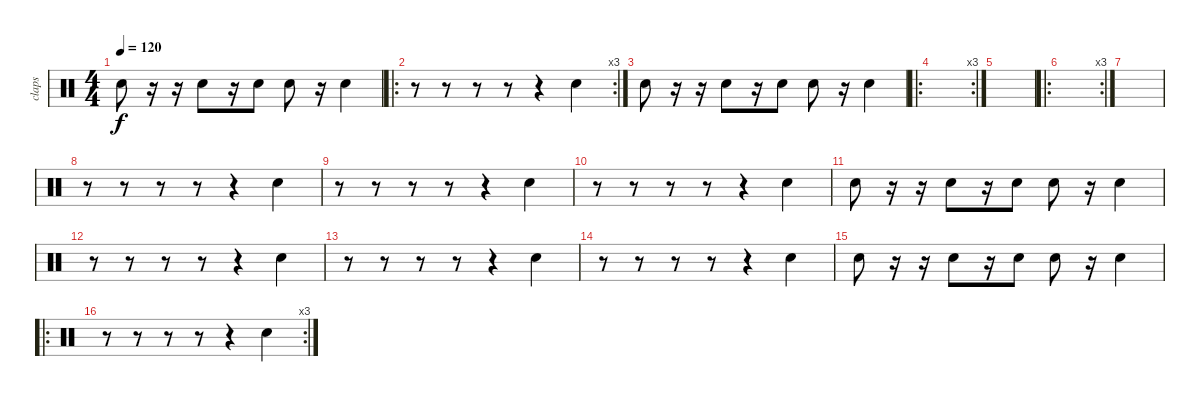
\track ("claps" "claps") {instrument percussion}
\staff {score}
\articulation defaults
\ts (4 4)
\tempo 120
\clef neutral
\ks c "Hand Clap (hit)".8{dy f}
r.16 r.16 "Hand Clap (hit)".8 r.16 "Hand Clap (hit)".8 "Hand Clap (hit)".8 r.16 "Hand Clap (hit)".4 |
\ro
\rc 3
r.8 r.8 r.8 r.8 r.4 "Hand Clap (hit)".4 |
"Hand Clap (hit)".8 r.16 r.16 "Hand Clap (hit)".8 r.16 "Hand Clap (hit)".8 "Hand Clap (hit)".8 r.16 "Hand Clap (hit)".4 |
\ro
\rc 3
|
|
\ro
\rc 3
|
|
r.8 r.8 r.8 r.8 r.4 "Hand Clap (hit)".4 |
r.8 r.8 r.8 r.8 r.4 "Hand Clap (hit)".4 |
r.8 r.8 r.8 r.8 r.4 "Hand Clap (hit)".4 |
"Hand Clap (hit)".8 r.16 r.16 "Hand Clap (hit)".8 r.16 "Hand Clap (hit)".8 "Hand Clap (hit)".8 r.16 "Hand Clap (hit)".4 |
r.8 r.8 r.8 r.8 r.4 "Hand Clap (hit)".4 |
r.8 r.8 r.8 r.8 r.4 "Hand Clap (hit)".4 |
r.8 r.8 r.8 r.8 r.4 "Hand Clap (hit)".4 |
"Hand Clap (hit)".8 r.16 r.16 "Hand Clap (hit)".8 r.16 "Hand Clap (hit)".8 "Hand Clap (hit)".8 r.16 "Hand Clap (hit)".4 |
\ro
\rc 3
r.8 r.8 r.8 r.8 r.4 "Hand Clap (hit)".4
